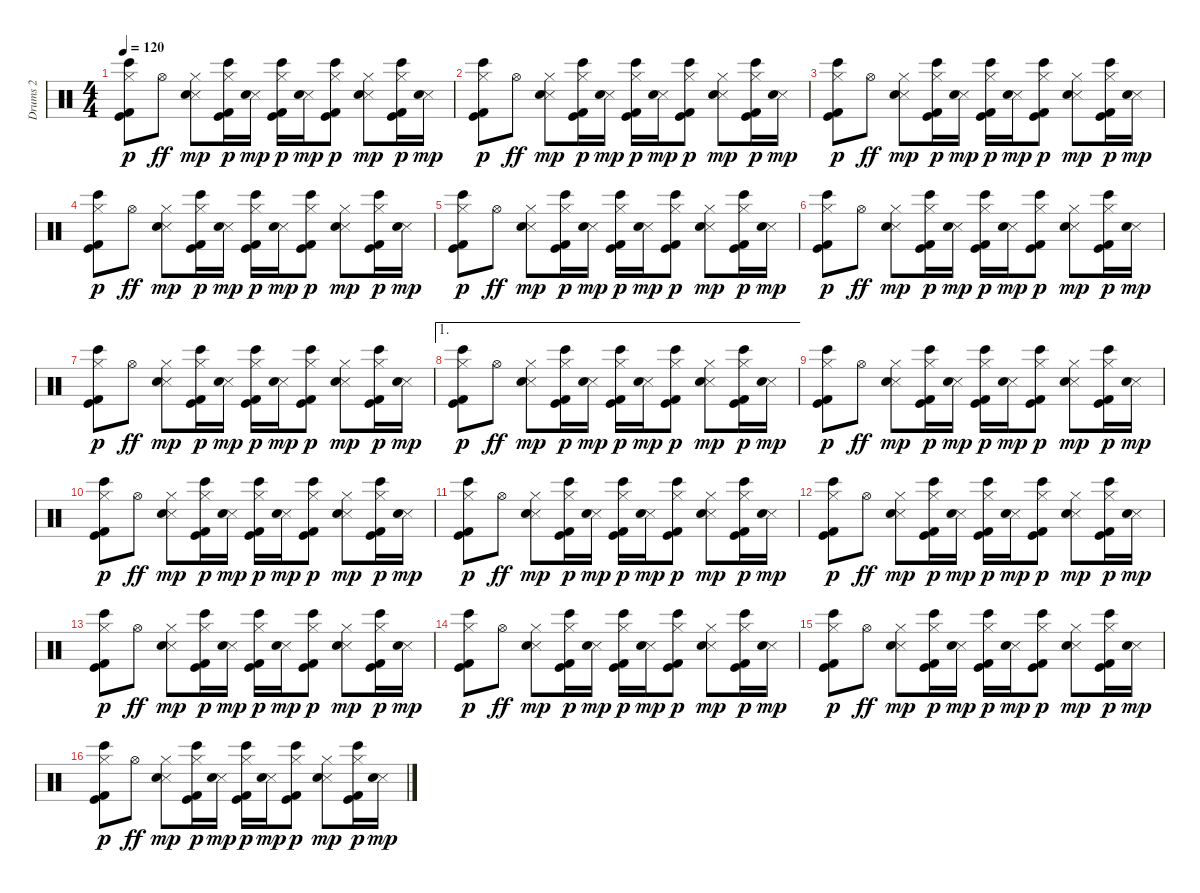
\track ("Drums 2" "Drums 2") {instrument percussion}
\staff {score}
\articulation defaults
\ts (4 4)
\tempo 120
\clef neutral
\ks c
("Hi-Hat (closed)" "Bongo High (hit)" "Kick (hit) 2" "Kick (hit)").8{dy p} "Hi-Hat (open)".8{dy ff} ("Hi-Hat (closed)" "Metronome (hit)" "Electric Snare (hit)").8{dy mp} ("Hi-Hat (closed)" "Bongo High (hit)" "Kick (hit) 2" "Kick (hit)").16{dy p} ("Metronome (hit)" "Electric Snare (hit)").16{dy mp} ("Hi-Hat (closed)" "Bongo High (hit)" "Kick (hit) 2" "Kick (hit)").16{dy p} ("Metronome (hit)" "Electric Snare (hit)").16{dy mp} ("Hi-Hat (closed)" "Bongo High (hit)" "Kick (hit) 2" "Kick (hit)").8{dy p} ("Hi-Hat (closed)" "Metronome (hit)" "Electric Snare (hit)").8{dy mp} ("Hi-Hat (closed)" "Bongo High (hit)" "Kick (hit) 2" "Kick (hit)").16{dy p} ("Metronome (hit)" "Electric Snare (hit)").16{dy mp} |
("Hi-Hat (closed)" "Bongo High (hit)" "Kick (hit) 2" "Kick (hit)").8{dy p} "Hi-Hat (open)".8{dy ff} ("Hi-Hat (closed)" "Metronome (hit)" "Electric Snare (hit)").8{dy mp} ("Hi-Hat (closed)" "Bongo High (hit)" "Kick (hit) 2" "Kick (hit)").16{dy p} ("Metronome (hit)" "Electric Snare (hit)").16{dy mp} ("Hi-Hat (closed)" "Bongo High (hit)" "Kick (hit) 2" "Kick (hit)").16{dy p} ("Metronome (hit)" "Electric Snare (hit)").16{dy mp} ("Hi-Hat (closed)" "Bongo High (hit)" "Kick (hit) 2" "Kick (hit)").8{dy p} ("Hi-Hat (closed)" "Metronome (hit)" "Electric Snare (hit)").8{dy mp} ("Hi-Hat (closed)" "Bongo High (hit)" "Kick (hit) 2" "Kick (hit)").16{dy p} ("Metronome (hit)" "Electric Snare (hit)").16{dy mp} |
("Hi-Hat (closed)" "Bongo High (hit)" "Kick (hit) 2" "Kick (hit)").8{dy p} "Hi-Hat (open)".8{dy ff} ("Hi-Hat (closed)" "Metronome (hit)" "Electric Snare (hit)").8{dy mp} ("Hi-Hat (closed)" "Bongo High (hit)" "Kick (hit) 2" "Kick (hit)").16{dy p} ("Metronome (hit)" "Electric Snare (hit)").16{dy mp} ("Hi-Hat (closed)" "Bongo High (hit)" "Kick (hit) 2" "Kick (hit)").16{dy p} ("Metronome (hit)" "Electric Snare (hit)").16{dy mp} ("Hi-Hat (closed)" "Bongo High (hit)" "Kick (hit) 2" "Kick (hit)").8{dy p} ("Hi-Hat (closed)" "Metronome (hit)" "Electric Snare (hit)").8{dy mp} ("Hi-Hat (closed)" "Bongo High (hit)" "Kick (hit) 2" "Kick (hit)").16{dy p} ("Metronome (hit)" "Electric Snare (hit)").16{dy mp} |
("Hi-Hat (closed)" "Bongo High (hit)" "Kick (hit) 2" "Kick (hit)").8{dy p} "Hi-Hat (open)".8{dy ff} ("Hi-Hat (closed)" "Metronome (hit)" "Electric Snare (hit)").8{dy mp} ("Hi-Hat (closed)" "Bongo High (hit)" "Kick (hit) 2" "Kick (hit)").16{dy p} ("Metronome (hit)" "Electric Snare (hit)").16{dy mp} ("Hi-Hat (closed)" "Bongo High (hit)" "Kick (hit) 2" "Kick (hit)").16{dy p} ("Metronome (hit)" "Electric Snare (hit)").16{dy mp} ("Hi-Hat (closed)" "Bongo High (hit)" "Kick (hit) 2" "Kick (hit)").8{dy p} ("Hi-Hat (closed)" "Metronome (hit)" "Electric Snare (hit)").8{dy mp} ("Hi-Hat (closed)" "Bongo High (hit)" "Kick (hit) 2" "Kick (hit)").16{dy p} ("Metronome (hit)" "Electric Snare (hit)").16{dy mp} |
("Hi-Hat (closed)" "Bongo High (hit)" "Kick (hit) 2" "Kick (hit)").8{dy p} "Hi-Hat (open)".8{dy ff} ("Hi-Hat (closed)" "Metronome (hit)" "Electric Snare (hit)").8{dy mp} ("Hi-Hat (closed)" "Bongo High (hit)" "Kick (hit) 2" "Kick (hit)").16{dy p} ("Metronome (hit)" "Electric Snare (hit)").16{dy mp} ("Hi-Hat (closed)" "Bongo High (hit)" "Kick (hit) 2" "Kick (hit)").16{dy p} ("Metronome (hit)" "Electric Snare (hit)").16{dy mp} ("Hi-Hat (closed)" "Bongo High (hit)" "Kick (hit) 2" "Kick (hit)").8{dy p} ("Hi-Hat (closed)" "Metronome (hit)" "Electric Snare (hit)").8{dy mp} ("Hi-Hat (closed)" "Bongo High (hit)" "Kick (hit) 2" "Kick (hit)").16{dy p} ("Metronome (hit)" "Electric Snare (hit)").16{dy mp} |
("Hi-Hat (closed)" "Bongo High (hit)" "Kick (hit) 2" "Kick (hit)").8{dy p} "Hi-Hat (open)".8{dy ff} ("Hi-Hat (closed)" "Metronome (hit)" "Electric Snare (hit)").8{dy mp} ("Hi-Hat (closed)" "Bongo High (hit)" "Kick (hit) 2" "Kick (hit)").16{dy p} ("Metronome (hit)" "Electric Snare (hit)").16{dy mp} ("Hi-Hat (closed)" "Bongo High (hit)" "Kick (hit) 2" "Kick (hit)").16{dy p} ("Metronome (hit)" "Electric Snare (hit)").16{dy mp} ("Hi-Hat (closed)" "Bongo High (hit)" "Kick (hit) 2" "Kick (hit)").8{dy p} ("Hi-Hat (closed)" "Metronome (hit)" "Electric Snare (hit)").8{dy mp} ("Hi-Hat (closed)" "Bongo High (hit)" "Kick (hit) 2" "Kick (hit)").16{dy p} ("Metronome (hit)" "Electric Snare (hit)").16{dy mp} |
("Hi-Hat (closed)" "Bongo High (hit)" "Kick (hit) 2" "Kick (hit)").8{dy p} "Hi-Hat (open)".8{dy ff} ("Hi-Hat (closed)" "Metronome (hit)" "Electric Snare (hit)").8{dy mp} ("Hi-Hat (closed)" "Bongo High (hit)" "Kick (hit) 2" "Kick (hit)").16{dy p} ("Metronome (hit)" "Electric Snare (hit)").16{dy mp} ("Hi-Hat (closed)" "Bongo High (hit)" "Kick (hit) 2" "Kick (hit)").16{dy p} ("Metronome (hit)" "Electric Snare (hit)").16{dy mp} ("Hi-Hat (closed)" "Bongo High (hit)" "Kick (hit) 2" "Kick (hit)").8{dy p} ("Hi-Hat (closed)" "Metronome (hit)" "Electric Snare (hit)").8{dy mp} ("Hi-Hat (closed)" "Bongo High (hit)" "Kick (hit) 2" "Kick (hit)").16{dy p} ("Metronome (hit)" "Electric Snare (hit)").16{dy mp} |
\ae 1
("Hi-Hat (closed)" "Bongo High (hit)" "Kick (hit) 2" "Kick (hit)").8{dy p} "Hi-Hat (open)".8{dy ff} ("Hi-Hat (closed)" "Metronome (hit)" "Electric Snare (hit)").8{dy mp} ("Hi-Hat (closed)" "Bongo High (hit)" "Kick (hit) 2" "Kick (hit)").16{dy p} ("Metronome (hit)" "Electric Snare (hit)").16{dy mp} ("Hi-Hat (closed)" "Bongo High (hit)" "Kick (hit) 2" "Kick (hit)").16{dy p} ("Metronome (hit)" "Electric Snare (hit)").16{dy mp} ("Hi-Hat (closed)" "Bongo High (hit)" "Kick (hit) 2" "Kick (hit)").8{dy p} ("Hi-Hat (closed)" "Metronome (hit)" "Electric Snare (hit)").8{dy mp} ("Hi-Hat (closed)" "Bongo High (hit)" "Kick (hit) 2" "Kick (hit)").16{dy p} ("Metronome (hit)" "Electric Snare (hit)").16{dy mp} |
("Hi-Hat (closed)" "Bongo High (hit)" "Kick (hit) 2" "Kick (hit)").8{dy p} "Hi-Hat (open)".8{dy ff} ("Hi-Hat (closed)" "Metronome (hit)" "Electric Snare (hit)").8{dy mp} ("Hi-Hat (closed)" "Bongo High (hit)" "Kick (hit) 2" "Kick (hit)").16{dy p} ("Metronome (hit)" "Electric Snare (hit)").16{dy mp} ("Hi-Hat (closed)" "Bongo High (hit)" "Kick (hit) 2" "Kick (hit)").16{dy p} ("Metronome (hit)" "Electric Snare (hit)").16{dy mp} ("Hi-Hat (closed)" "Bongo High (hit)" "Kick (hit) 2" "Kick (hit)").8{dy p} ("Hi-Hat (closed)" "Metronome (hit)" "Electric Snare (hit)").8{dy mp} ("Hi-Hat (closed)" "Bongo High (hit)" "Kick (hit) 2" "Kick (hit)").16{dy p} ("Metronome (hit)" "Electric Snare (hit)").16{dy mp} |
("Hi-Hat (closed)" "Bongo High (hit)" "Kick (hit) 2" "Kick (hit)").8{dy p} "Hi-Hat (open)".8{dy ff} ("Hi-Hat (closed)" "Metronome (hit)" "Electric Snare (hit)").8{dy mp} ("Hi-Hat (closed)" "Bongo High (hit)" "Kick (hit) 2" "Kick (hit)").16{dy p} ("Metronome (hit)" "Electric Snare (hit)").16{dy mp} ("Hi-Hat (closed)" "Bongo High (hit)" "Kick (hit) 2" "Kick (hit)").16{dy p} ("Metronome (hit)" "Electric Snare (hit)").16{dy mp} ("Hi-Hat (closed)" "Bongo High (hit)" "Kick (hit) 2" "Kick (hit)").8{dy p} ("Hi-Hat (closed)" "Metronome (hit)" "Electric Snare (hit)").8{dy mp} ("Hi-Hat (closed)" "Bongo High (hit)" "Kick (hit) 2" "Kick (hit)").16{dy p} ("Metronome (hit)" "Electric Snare (hit)").16{dy mp} |
("Hi-Hat (closed)" "Bongo High (hit)" "Kick (hit) 2" "Kick (hit)").8{dy p} "Hi-Hat (open)".8{dy ff} ("Hi-Hat (closed)" "Metronome (hit)" "Electric Snare (hit)").8{dy mp} ("Hi-Hat (closed)" "Bongo High (hit)" "Kick (hit) 2" "Kick (hit)").16{dy p} ("Metronome (hit)" "Electric Snare (hit)").16{dy mp} ("Hi-Hat (closed)" "Bongo High (hit)" "Kick (hit) 2" "Kick (hit)").16{dy p} ("Metronome (hit)" "Electric Snare (hit)").16{dy mp} ("Hi-Hat (closed)" "Bongo High (hit)" "Kick (hit) 2" "Kick (hit)").8{dy p} ("Hi-Hat (closed)" "Metronome (hit)" "Electric Snare (hit)").8{dy mp} ("Hi-Hat (closed)" "Bongo High (hit)" "Kick (hit) 2" "Kick (hit)").16{dy p} ("Metronome (hit)" "Electric Snare (hit)").16{dy mp} |
("Hi-Hat (closed)" "Bongo High (hit)" "Kick (hit) 2" "Kick (hit)").8{dy p} "Hi-Hat (open)".8{dy ff} ("Hi-Hat (closed)" "Metronome (hit)" "Electric Snare (hit)").8{dy mp} ("Hi-Hat (closed)" "Bongo High (hit)" "Kick (hit) 2" "Kick (hit)").16{dy p} ("Metronome (hit)" "Electric Snare (hit)").16{dy mp} ("Hi-Hat (closed)" "Bongo High (hit)" "Kick (hit) 2" "Kick (hit)").16{dy p} ("Metronome (hit)" "Electric Snare (hit)").16{dy mp} ("Hi-Hat (closed)" "Bongo High (hit)" "Kick (hit) 2" "Kick (hit)").8{dy p} ("Hi-Hat (closed)" "Metronome (hit)" "Electric Snare (hit)").8{dy mp} ("Hi-Hat (closed)" "Bongo High (hit)" "Kick (hit) 2" "Kick (hit)").16{dy p} ("Metronome (hit)" "Electric Snare (hit)").16{dy mp} |
("Hi-Hat (closed)" "Bongo High (hit)" "Kick (hit) 2" "Kick (hit)").8{dy p} "Hi-Hat (open)".8{dy ff} ("Hi-Hat (closed)" "Metronome (hit)" "Electric Snare (hit)").8{dy mp} ("Hi-Hat (closed)" "Bongo High (hit)" "Kick (hit) 2" "Kick (hit)").16{dy p} ("Metronome (hit)" "Electric Snare (hit)").16{dy mp} ("Hi-Hat (closed)" "Bongo High (hit)" "Kick (hit) 2" "Kick (hit)").16{dy p} ("Metronome (hit)" "Electric Snare (hit)").16{dy mp} ("Hi-Hat (closed)" "Bongo High (hit)" "Kick (hit) 2" "Kick (hit)").8{dy p} ("Hi-Hat (closed)" "Metronome (hit)" "Electric Snare (hit)").8{dy mp} ("Hi-Hat (closed)" "Bongo High (hit)" "Kick (hit) 2" "Kick (hit)").16{dy p} ("Metronome (hit)" "Electric Snare (hit)").16{dy mp} |
("Hi-Hat (closed)" "Bongo High (hit)" "Kick (hit) 2" "Kick (hit)").8{dy p} "Hi-Hat (open)".8{dy ff} ("Hi-Hat (closed)" "Metronome (hit)" "Electric Snare (hit)").8{dy mp} ("Hi-Hat (closed)" "Bongo High (hit)" "Kick (hit) 2" "Kick (hit)").16{dy p} ("Metronome (hit)" "Electric Snare (hit)").16{dy mp} ("Hi-Hat (closed)" "Bongo High (hit)" "Kick (hit) 2" "Kick (hit)").16{dy p} ("Metronome (hit)" "Electric Snare (hit)").16{dy mp} ("Hi-Hat (closed)" "Bongo High (hit)" "Kick (hit) 2" "Kick (hit)").8{dy p} ("Hi-Hat (closed)" "Metronome (hit)" "Electric Snare (hit)").8{dy mp} ("Hi-Hat (closed)" "Bongo High (hit)" "Kick (hit) 2" "Kick (hit)").16{dy p} ("Metronome (hit)" "Electric Snare (hit)").16{dy mp} |
("Hi-Hat (closed)" "Bongo High (hit)" "Kick (hit) 2" "Kick (hit)").8{dy p} "Hi-Hat (open)".8{dy ff} ("Hi-Hat (closed)" "Metronome (hit)" "Electric Snare (hit)").8{dy mp} ("Hi-Hat (closed)" "Bongo High (hit)" "Kick (hit) 2" "Kick (hit)").16{dy p} ("Metronome (hit)" "Electric Snare (hit)").16{dy mp} ("Hi-Hat (closed)" "Bongo High (hit)" "Kick (hit) 2" "Kick (hit)").16{dy p} ("Metronome (hit)" "Electric Snare (hit)").16{dy mp} ("Hi-Hat (closed)" "Bongo High (hit)" "Kick (hit) 2" "Kick (hit)").8{dy p} ("Hi-Hat (closed)" "Metronome (hit)" "Electric Snare (hit)").8{dy mp} ("Hi-Hat (closed)" "Bongo High (hit)" "Kick (hit) 2" "Kick (hit)").16{dy p} ("Metronome (hit)" "Electric Snare (hit)").16{dy mp} |
("Hi-Hat (closed)" "Bongo High (hit)" "Kick (hit) 2" "Kick (hit)").8{dy p} "Hi-Hat (open)".8{dy ff} ("Hi-Hat (closed)" "Metronome (hit)" "Electric Snare (hit)").8{dy mp} ("Hi-Hat (closed)" "Bongo High (hit)" "Kick (hit) 2" "Kick (hit)").16{dy p} ("Metronome (hit)" "Electric Snare (hit)").16{dy mp} ("Hi-Hat (closed)" "Bongo High (hit)" "Kick (hit) 2" "Kick (hit)").16{dy p} ("Metronome (hit)" "Electric Snare (hit)").16{dy mp} ("Hi-Hat (closed)" "Bongo High (hit)" "Kick (hit) 2" "Kick (hit)").8{dy p} ("Hi-Hat (closed)" "Metronome (hit)" "Electric Snare (hit)").8{dy mp} ("Hi-Hat (closed)" "Bongo High (hit)" "Kick (hit) 2" "Kick (hit)").16{dy p} ("Metronome (hit)" "Electric Snare (hit)").16{dy mp}
